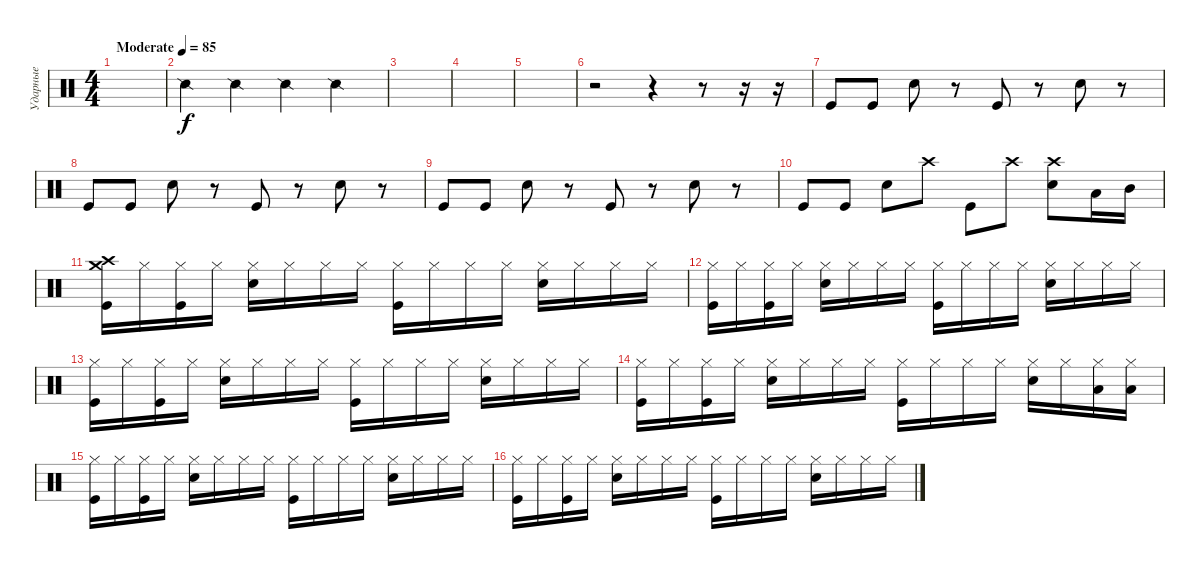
\track ("Ударные" "Ударные") {instrument percussion}
\staff {score}
\articulation defaults
\ts (4 4)
\tempo (85 "Moderate")
\clef neutral
\ks c
|
"Snare (side stick) 2".4 "Snare (side stick) 2".4 "Snare (side stick) 2".4 "Snare (side stick) 2".4 |
|
|
|
r.2 r.4 r.8 r.16 r.16 |
"Kick (hit)".8 "Kick (hit)".8 "Hand Clap (hit)".8 r.8 "Kick (hit)".8 r.8 "Hand Clap (hit)".8 r.8 |
"Kick (hit)".8 "Kick (hit)".8 "Hand Clap (hit)".8 r.8 "Kick (hit)".8 r.8 "Hand Clap (hit)".8 r.8 |
"Kick (hit)".8 "Kick (hit)".8 "Hand Clap (hit)".8 r.8 "Kick (hit)".8 r.8 "Hand Clap (hit)".8 r.8 |
"Kick (hit)".8 "Kick (hit)".8 "Hand Clap (hit)".8 "Crash high (hit)".8 "Kick (hit)".8 "Crash high (hit)".8 ("Crash high (hit)" "Hand Clap (hit)").8 "Low Floor Tom (hit)".16 "Mid Tom (hit)".16 |
("Crash high (hit)" "Crash medium (hit)" "Kick (hit)").16 "Hi-Hat (closed)".16 ("Hi-Hat (closed)" "Kick (hit)").16 "Hi-Hat (closed)".16 ("Hi-Hat (closed)" "Electric Snare (hit)").16 "Hi-Hat (closed)".16 "Hi-Hat (closed)".16 "Hi-Hat (closed)".16 ("Hi-Hat (closed)" "Kick (hit)").16 "Hi-Hat (closed)".16 "Hi-Hat (closed)".16 "Hi-Hat (closed)".16 ("Hi-Hat (closed)" "Electric Snare (hit)").16 "Hi-Hat (closed)".16 "Hi-Hat (closed)".16 "Hi-Hat (closed)".16 |
("Hi-Hat (closed)" "Kick (hit)").16 "Hi-Hat (closed)".16 ("Hi-Hat (closed)" "Kick (hit)").16 "Hi-Hat (closed)".16 ("Hi-Hat (closed)" "Electric Snare (hit)").16 "Hi-Hat (closed)".16 "Hi-Hat (closed)".16 "Hi-Hat (closed)".16 ("Hi-Hat (closed)" "Kick (hit)").16 "Hi-Hat (closed)".16 "Hi-Hat (closed)".16 "Hi-Hat (closed)".16 ("Hi-Hat (closed)" "Electric Snare (hit)").16 "Hi-Hat (closed)".16 "Hi-Hat (closed)".16 "Hi-Hat (closed)".16 |
("Hi-Hat (closed)" "Kick (hit)").16 "Hi-Hat (closed)".16 ("Hi-Hat (closed)" "Kick (hit)").16 "Hi-Hat (closed)".16 ("Hi-Hat (closed)" "Electric Snare (hit)").16 "Hi-Hat (closed)".16 "Hi-Hat (closed)".16 "Hi-Hat (closed)".16 ("Hi-Hat (closed)" "Kick (hit)").16 "Hi-Hat (closed)".16 "Hi-Hat (closed)".16 "Hi-Hat (closed)".16 ("Hi-Hat (closed)" "Electric Snare (hit)").16 "Hi-Hat (closed)".16 "Hi-Hat (closed)".16 "Hi-Hat (closed)".16 |
("Hi-Hat (closed)" "Kick (hit)").16 "Hi-Hat (closed)".16 ("Hi-Hat (closed)" "Kick (hit)").16 "Hi-Hat (closed)".16 ("Hi-Hat (closed)" "Electric Snare (hit)").16 "Hi-Hat (closed)".16 "Hi-Hat (closed)".16 "Hi-Hat (closed)".16 ("Hi-Hat (closed)" "Kick (hit)").16 "Hi-Hat (closed)".16 "Hi-Hat (closed)".16 "Hi-Hat (closed)".16 ("Hi-Hat (closed)" "Electric Snare (hit)").16 "Hi-Hat (closed)".16 ("Hi-Hat (closed)" "Low Floor Tom (hit)").16 ("Hi-Hat (closed)" "Low Floor Tom (hit)").16 |
("Hi-Hat (closed)" "Kick (hit)").16 "Hi-Hat (closed)".16 ("Hi-Hat (closed)" "Kick (hit)").16 "Hi-Hat (closed)".16 ("Hi-Hat (closed)" "Electric Snare (hit)").16 "Hi-Hat (closed)".16 "Hi-Hat (closed)".16 "Hi-Hat (closed)".16 ("Hi-Hat (closed)" "Kick (hit)").16 "Hi-Hat (closed)".16 "Hi-Hat (closed)".16 "Hi-Hat (closed)".16 ("Hi-Hat (closed)" "Electric Snare (hit)").16 "Hi-Hat (closed)".16 "Hi-Hat (closed)".16 "Hi-Hat (closed)".16 |
("Hi-Hat (closed)" "Kick (hit)").16 "Hi-Hat (closed)".16 ("Hi-Hat (closed)" "Kick (hit)").16 "Hi-Hat (closed)".16 ("Hi-Hat (closed)" "Electric Snare (hit)").16 "Hi-Hat (closed)".16 "Hi-Hat (closed)".16 "Hi-Hat (closed)".16 ("Hi-Hat (closed)" "Kick (hit)").16 "Hi-Hat (closed)".16 "Hi-Hat (closed)".16 "Hi-Hat (closed)".16 ("Hi-Hat (closed)" "Electric Snare (hit)").16 "Hi-Hat (closed)".16 "Hi-Hat (closed)".16 "Hi-Hat (closed)".16
